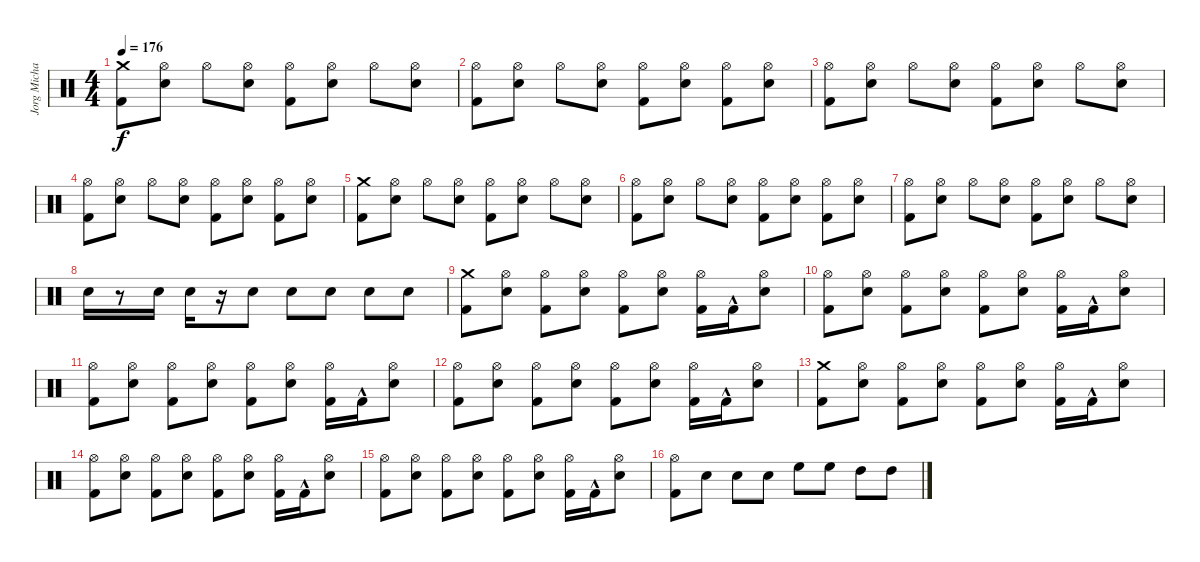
\track ("Jorg Michael" "Jorg Micha") {instrument percussion}
\staff {score}
\articulation defaults
\ts (4 4)
\tempo 176
\clef neutral
\ks c
("Kick (hit) 2" "Crash medium (hit)").8{dy f} ("Snare (hit) 2" "Hi-Hat (open)").8 "Hi-Hat (open)".8 ("Snare (hit) 2" "Hi-Hat (open)").8 ("Kick (hit) 2" "Hi-Hat (open)").8 ("Snare (hit) 2" "Hi-Hat (open)").8 "Hi-Hat (open)".8 ("Snare (hit) 2" "Hi-Hat (open)").8 |
("Hi-Hat (open)" "Kick (hit) 2").8 ("Snare (hit) 2" "Hi-Hat (open)").8 "Hi-Hat (open)".8 ("Snare (hit) 2" "Hi-Hat (open)").8 ("Kick (hit) 2" "Hi-Hat (open)").8 ("Snare (hit) 2" "Hi-Hat (open)").8 ("Kick (hit) 2" "Hi-Hat (open)").8 ("Snare (hit) 2" "Hi-Hat (open)").8 |
("Hi-Hat (open)" "Kick (hit) 2").8 ("Snare (hit) 2" "Hi-Hat (open)").8 "Hi-Hat (open)".8 ("Snare (hit) 2" "Hi-Hat (open)").8 ("Kick (hit) 2" "Hi-Hat (open)").8 ("Snare (hit) 2" "Hi-Hat (open)").8 "Hi-Hat (open)".8 ("Snare (hit) 2" "Hi-Hat (open)").8 |
("Hi-Hat (open)" "Kick (hit) 2").8 ("Snare (hit) 2" "Hi-Hat (open)").8 "Hi-Hat (open)".8 ("Snare (hit) 2" "Hi-Hat (open)").8 ("Kick (hit) 2" "Hi-Hat (open)").8 ("Snare (hit) 2" "Hi-Hat (open)").8 ("Kick (hit) 2" "Hi-Hat (open)").8 ("Snare (hit) 2" "Hi-Hat (open)").8 |
("Kick (hit) 2" "Crash medium (hit)").8 ("Snare (hit) 2" "Hi-Hat (open)").8 "Hi-Hat (open)".8 ("Snare (hit) 2" "Hi-Hat (open)").8 ("Kick (hit) 2" "Hi-Hat (open)").8 ("Snare (hit) 2" "Hi-Hat (open)").8 "Hi-Hat (open)".8 ("Snare (hit) 2" "Hi-Hat (open)").8 |
("Hi-Hat (open)" "Kick (hit) 2").8 ("Snare (hit) 2" "Hi-Hat (open)").8 "Hi-Hat (open)".8 ("Snare (hit) 2" "Hi-Hat (open)").8 ("Kick (hit) 2" "Hi-Hat (open)").8 ("Snare (hit) 2" "Hi-Hat (open)").8 ("Kick (hit) 2" "Hi-Hat (open)").8 ("Snare (hit) 2" "Hi-Hat (open)").8 |
("Hi-Hat (open)" "Kick (hit) 2").8 ("Snare (hit) 2" "Hi-Hat (open)").8 "Hi-Hat (open)".8 ("Snare (hit) 2" "Hi-Hat (open)").8 ("Kick (hit) 2" "Hi-Hat (open)").8 ("Snare (hit) 2" "Hi-Hat (open)").8 "Hi-Hat (open)".8 ("Snare (hit) 2" "Hi-Hat (open)").8 |
"Snare (hit) 2".16 r.8 "Snare (hit) 2".16 "Snare (hit) 2".16 r.16 "Snare (hit) 2".8 "Snare (hit) 2".8 "Snare (hit) 2".8 "Snare (hit) 2".8 "Snare (hit) 2".8 |
("Kick (hit) 2" "Crash medium (hit)").8 ("Snare (hit) 2" "Hi-Hat (open)").8 ("Kick (hit) 2" "Hi-Hat (open)").8 ("Snare (hit) 2" "Hi-Hat (open)").8 ("Kick (hit) 2" "Hi-Hat (open)").8 ("Snare (hit) 2" "Hi-Hat (open)").8 ("Kick (hit) 2" "Hi-Hat (open)").16 "Kick (hit) 2"{hac}.16 ("Snare (hit) 2" "Hi-Hat (open)").8 |
("Hi-Hat (open)" "Kick (hit) 2").8 ("Snare (hit) 2" "Hi-Hat (open)").8 ("Kick (hit) 2" "Hi-Hat (open)").8 ("Snare (hit) 2" "Hi-Hat (open)").8 ("Kick (hit) 2" "Hi-Hat (open)").8 ("Snare (hit) 2" "Hi-Hat (open)").8 ("Kick (hit) 2" "Hi-Hat (open)").16 "Kick (hit) 2"{hac}.16 ("Snare (hit) 2" "Hi-Hat (open)").8 |
("Hi-Hat (open)" "Kick (hit) 2").8 ("Snare (hit) 2" "Hi-Hat (open)").8 ("Kick (hit) 2" "Hi-Hat (open)").8 ("Snare (hit) 2" "Hi-Hat (open)").8 ("Kick (hit) 2" "Hi-Hat (open)").8 ("Snare (hit) 2" "Hi-Hat (open)").8 ("Kick (hit) 2" "Hi-Hat (open)").16 "Kick (hit) 2"{hac}.16 ("Snare (hit) 2" "Hi-Hat (open)").8 |
("Hi-Hat (open)" "Kick (hit) 2").8 ("Snare (hit) 2" "Hi-Hat (open)").8 ("Kick (hit) 2" "Hi-Hat (open)").8 ("Snare (hit) 2" "Hi-Hat (open)").8 ("Kick (hit) 2" "Hi-Hat (open)").8 ("Snare (hit) 2" "Hi-Hat (open)").8 ("Kick (hit) 2" "Hi-Hat (open)").16 "Kick (hit) 2"{hac}.16 ("Snare (hit) 2" "Hi-Hat (open)").8 |
("Kick (hit) 2" "Crash medium (hit)").8 ("Snare (hit) 2" "Hi-Hat (open)").8 ("Kick (hit) 2" "Hi-Hat (open)").8 ("Snare (hit) 2" "Hi-Hat (open)").8 ("Kick (hit) 2" "Hi-Hat (open)").8 ("Snare (hit) 2" "Hi-Hat (open)").8 ("Kick (hit) 2" "Hi-Hat (open)").16 "Kick (hit) 2"{hac}.16 ("Snare (hit) 2" "Hi-Hat (open)").8 |
("Hi-Hat (open)" "Kick (hit) 2").8 ("Snare (hit) 2" "Hi-Hat (open)").8 ("Kick (hit) 2" "Hi-Hat (open)").8 ("Snare (hit) 2" "Hi-Hat (open)").8 ("Kick (hit) 2" "Hi-Hat (open)").8 ("Snare (hit) 2" "Hi-Hat (open)").8 ("Kick (hit) 2" "Hi-Hat (open)").16 "Kick (hit) 2"{hac}.16 ("Snare (hit) 2" "Hi-Hat (open)").8 |
("Hi-Hat (open)" "Kick (hit) 2").8 ("Snare (hit) 2" "Hi-Hat (open)").8 ("Kick (hit) 2" "Hi-Hat (open)").8 ("Snare (hit) 2" "Hi-Hat (open)").8 ("Kick (hit) 2" "Hi-Hat (open)").8 ("Snare (hit) 2" "Hi-Hat (open)").8 ("Kick (hit) 2" "Hi-Hat (open)").16 "Kick (hit) 2"{hac}.16 ("Snare (hit) 2" "Hi-Hat (open)").8 |
("Kick (hit) 2" "Hi-Hat (open)").8 "Snare (hit) 2".8 "Snare (hit) 2".8 "Snare (hit) 2".8 "High Floor Tom (hit)".8 "High Floor Tom (hit)".8 "High Tom (hit)".8 "High Tom (hit)".8
